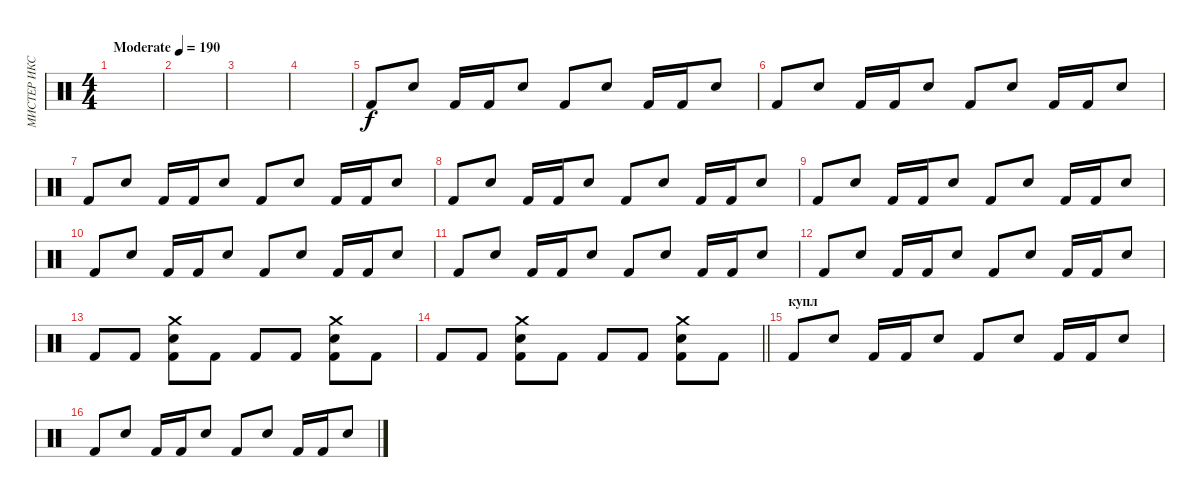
\track ("МИСТЕР ИКС" "МИСТЕР ИКС") {instrument percussion}
\staff {score}
\articulation defaults
\ts (4 4)
\tempo (190 "Moderate")
\clef neutral
\ks c
|
|
|
|
"Kick (hit) 2".8 "Electric Snare (hit)".8 "Kick (hit) 2".16 "Kick (hit) 2".16 "Electric Snare (hit)".8 "Kick (hit) 2".8 "Electric Snare (hit)".8 "Kick (hit) 2".16 "Kick (hit) 2".16 "Electric Snare (hit)".8 |
"Kick (hit) 2".8 "Electric Snare (hit)".8 "Kick (hit) 2".16 "Kick (hit) 2".16 "Electric Snare (hit)".8 "Kick (hit) 2".8 "Electric Snare (hit)".8 "Kick (hit) 2".16 "Kick (hit) 2".16 "Electric Snare (hit)".8 |
"Kick (hit) 2".8 "Electric Snare (hit)".8 "Kick (hit) 2".16 "Kick (hit) 2".16 "Electric Snare (hit)".8 "Kick (hit) 2".8 "Electric Snare (hit)".8 "Kick (hit) 2".16 "Kick (hit) 2".16 "Electric Snare (hit)".8 |
"Kick (hit) 2".8 "Electric Snare (hit)".8 "Kick (hit) 2".16 "Kick (hit) 2".16 "Electric Snare (hit)".8 "Kick (hit) 2".8 "Electric Snare (hit)".8 "Kick (hit) 2".16 "Kick (hit) 2".16 "Electric Snare (hit)".8 |
"Kick (hit) 2".8 "Electric Snare (hit)".8 "Kick (hit) 2".16 "Kick (hit) 2".16 "Electric Snare (hit)".8 "Kick (hit) 2".8 "Electric Snare (hit)".8 "Kick (hit) 2".16 "Kick (hit) 2".16 "Electric Snare (hit)".8 |
"Kick (hit) 2".8 "Electric Snare (hit)".8 "Kick (hit) 2".16 "Kick (hit) 2".16 "Electric Snare (hit)".8 "Kick (hit) 2".8 "Electric Snare (hit)".8 "Kick (hit) 2".16 "Kick (hit) 2".16 "Electric Snare (hit)".8 |
"Kick (hit) 2".8 "Electric Snare (hit)".8 "Kick (hit) 2".16 "Kick (hit) 2".16 "Electric Snare (hit)".8 "Kick (hit) 2".8 "Electric Snare (hit)".8 "Kick (hit) 2".16 "Kick (hit) 2".16 "Electric Snare (hit)".8 |
"Kick (hit) 2".8 "Electric Snare (hit)".8 "Kick (hit) 2".16 "Kick (hit) 2".16 "Electric Snare (hit)".8 "Kick (hit) 2".8 "Electric Snare (hit)".8 "Kick (hit) 2".16 "Kick (hit) 2".16 "Electric Snare (hit)".8 |
"Kick (hit) 2".8 "Kick (hit) 2".8 ("Kick (hit) 2" "Electric Snare (hit)" "Crash medium (hit)").8 "Kick (hit) 2".8 "Kick (hit) 2".8 "Kick (hit) 2".8 ("Kick (hit) 2" "Electric Snare (hit)" "Crash medium (hit)").8 "Kick (hit) 2".8 |
\barLineRight lightlight "Kick (hit) 2".8 "Kick (hit) 2".8
("Kick (hit) 2" "Electric Snare (hit)" "Crash medium (hit)").8 "Kick (hit) 2".8 "Kick (hit) 2".8 "Kick (hit) 2".8 ("Kick (hit) 2" "Electric Snare (hit)" "Crash medium (hit)").8 "Kick (hit) 2".8 |
\section ("" "купл")
"Kick (hit) 2".8 "Electric Snare (hit)".8 "Kick (hit) 2".16 "Kick (hit) 2".16 "Electric Snare (hit)".8 "Kick (hit) 2".8 "Electric Snare (hit)".8 "Kick (hit) 2".16 "Kick (hit) 2".16 "Electric Snare (hit)".8 |
"Kick (hit) 2".8 "Electric Snare (hit)".8 "Kick (hit) 2".16 "Kick (hit) 2".16 "Electric Snare (hit)".8 "Kick (hit) 2".8 "Electric Snare (hit)".8 "Kick (hit) 2".16 "Kick (hit) 2".16 "Electric Snare (hit)".8
